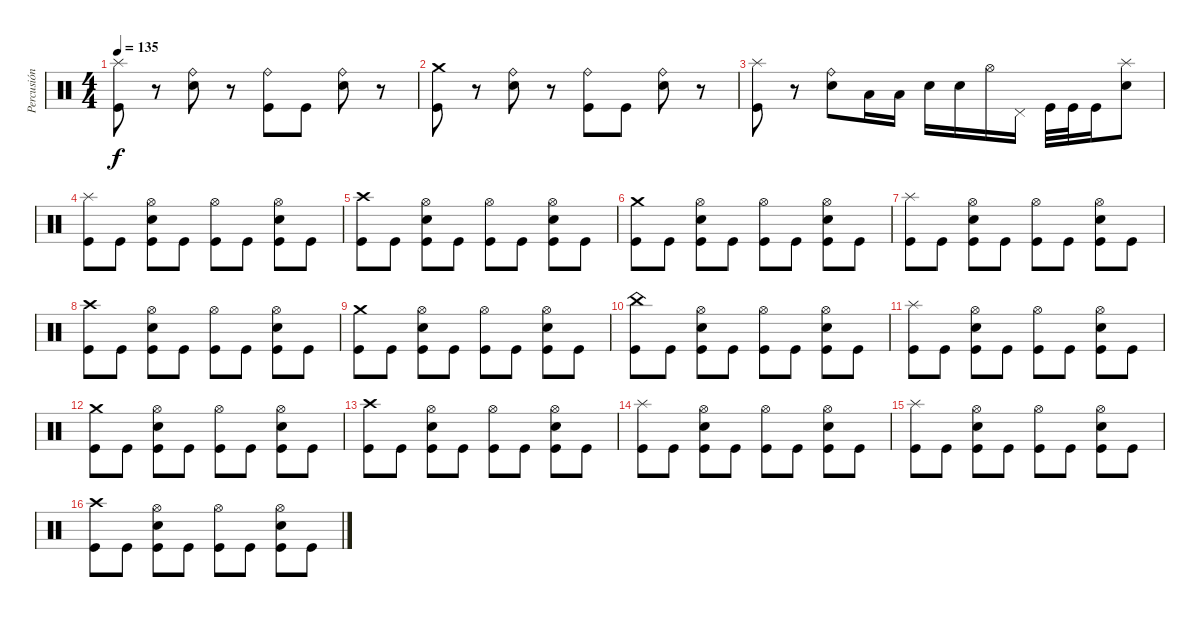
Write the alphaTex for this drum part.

\track ("Percusión" "Percusión") {instrument percussion}
\staff {score}
\articulation defaults
\ts (4 4)
\tempo 135
\clef neutral
\ks c
("Kick (hit)" "Splash (hit)").8{dy f} r.8 ("Electric Snare (hit)" "Ride (bell)").8 r.8 ("Kick (hit)" "Ride (bell)").8 "Kick (hit)".8 ("Electric Snare (hit)" "Ride (bell)").8 r.8 |
("Kick (hit)" "Crash medium (hit)").8 r.8 ("Electric Snare (hit)" "Ride (bell)").8 r.8 ("Kick (hit)" "Ride (bell)").8 "Kick (hit)".8 ("Electric Snare (hit)" "Ride (bell)").8 r.8 |
("Kick (hit)" "Splash (hit)").8 r.8 ("Electric Snare (hit)" "Ride (bell)").8 "Low Tom (hit)".16 "Low Tom (hit)".16 "Electric Snare (hit)".16 "Electric Snare (hit)".16 "Hi-Hat (open)".16 "Pedal Hi-Hat (hit)".16 "Kick (hit)".32 "Kick (hit)".32 "Kick (hit)".16 ("Electric Snare (hit)" "Splash (hit)").8 |
("Kick (hit)" "Splash (hit)").8 "Kick (hit)".8 ("Kick (hit)" "Electric Snare (hit)" "Hi-Hat (open)").8 "Kick (hit)".8 ("Kick (hit)" "Hi-Hat (open)").8 "Kick (hit)".8 ("Kick (hit)" "Electric Snare (hit)" "Hi-Hat (open)").8 "Kick (hit)".8 |
("Kick (hit)" "Crash high (hit)").8 "Kick (hit)".8 ("Kick (hit)" "Electric Snare (hit)" "Hi-Hat (open)").8 "Kick (hit)".8 ("Kick (hit)" "Hi-Hat (open)").8 "Kick (hit)".8 ("Kick (hit)" "Electric Snare (hit)" "Hi-Hat (open)").8 "Kick (hit)".8 |
("Kick (hit)" "Crash medium (hit)").8 "Kick (hit)".8 ("Kick (hit)" "Electric Snare (hit)" "Hi-Hat (open)").8 "Kick (hit)".8 ("Kick (hit)" "Hi-Hat (open)").8 "Kick (hit)".8 ("Kick (hit)" "Electric Snare (hit)" "Hi-Hat (open)").8 "Kick (hit)".8 |
("Kick (hit)" "Splash (hit)").8 "Kick (hit)".8 ("Kick (hit)" "Electric Snare (hit)" "Hi-Hat (open)").8 "Kick (hit)".8 ("Kick (hit)" "Hi-Hat (open)").8 "Kick (hit)".8 ("Kick (hit)" "Electric Snare (hit)" "Hi-Hat (open)").8 "Kick (hit)".8 |
("Kick (hit)" "Crash high (hit)").8 "Kick (hit)".8 ("Kick (hit)" "Electric Snare (hit)" "Hi-Hat (open)").8 "Kick (hit)".8 ("Kick (hit)" "Hi-Hat (open)").8 "Kick (hit)".8 ("Kick (hit)" "Electric Snare (hit)" "Hi-Hat (open)").8 "Kick (hit)".8 |
("Kick (hit)" "Crash medium (hit)").8 "Kick (hit)".8 ("Kick (hit)" "Electric Snare (hit)" "Hi-Hat (open)").8 "Kick (hit)".8 ("Kick (hit)" "Hi-Hat (open)").8 "Kick (hit)".8 ("Kick (hit)" "Electric Snare (hit)" "Hi-Hat (open)").8 "Kick (hit)".8 |
("Kick (hit)" "China (hit)").8 "Kick (hit)".8 ("Kick (hit)" "Electric Snare (hit)" "Hi-Hat (open)").8 "Kick (hit)".8 ("Kick (hit)" "Hi-Hat (open)").8 "Kick (hit)".8 ("Kick (hit)" "Electric Snare (hit)" "Hi-Hat (open)").8 "Kick (hit)".8 |
("Kick (hit)" "Splash (hit)").8 "Kick (hit)".8 ("Kick (hit)" "Electric Snare (hit)" "Hi-Hat (open)").8 "Kick (hit)".8 ("Kick (hit)" "Hi-Hat (open)").8 "Kick (hit)".8 ("Kick (hit)" "Electric Snare (hit)" "Hi-Hat (open)").8 "Kick (hit)".8 |
("Kick (hit)" "Crash medium (hit)").8 "Kick (hit)".8 ("Kick (hit)" "Electric Snare (hit)" "Hi-Hat (open)").8 "Kick (hit)".8 ("Kick (hit)" "Hi-Hat (open)").8 "Kick (hit)".8 ("Kick (hit)" "Electric Snare (hit)" "Hi-Hat (open)").8 "Kick (hit)".8 |
("Kick (hit)" "Crash high (hit)").8 "Kick (hit)".8 ("Kick (hit)" "Electric Snare (hit)" "Hi-Hat (open)").8 "Kick (hit)".8 ("Kick (hit)" "Hi-Hat (open)").8 "Kick (hit)".8 ("Kick (hit)" "Electric Snare (hit)" "Hi-Hat (open)").8 "Kick (hit)".8 |
("Kick (hit)" "Splash (hit)").8 "Kick (hit)".8 ("Kick (hit)" "Electric Snare (hit)" "Hi-Hat (open)").8 "Kick (hit)".8 ("Kick (hit)" "Hi-Hat (open)").8 "Kick (hit)".8 ("Kick (hit)" "Electric Snare (hit)" "Hi-Hat (open)").8 "Kick (hit)".8 |
("Kick (hit)" "Splash (hit)").8 "Kick (hit)".8 ("Kick (hit)" "Electric Snare (hit)" "Hi-Hat (open)").8 "Kick (hit)".8 ("Kick (hit)" "Hi-Hat (open)").8 "Kick (hit)".8 ("Kick (hit)" "Electric Snare (hit)" "Hi-Hat (open)").8 "Kick (hit)".8 |
("Kick (hit)" "Crash high (hit)").8 "Kick (hit)".8 ("Kick (hit)" "Electric Snare (hit)" "Hi-Hat (open)").8 "Kick (hit)".8 ("Kick (hit)" "Hi-Hat (open)").8 "Kick (hit)".8 ("Kick (hit)" "Electric Snare (hit)" "Hi-Hat (open)").8 "Kick (hit)".8
